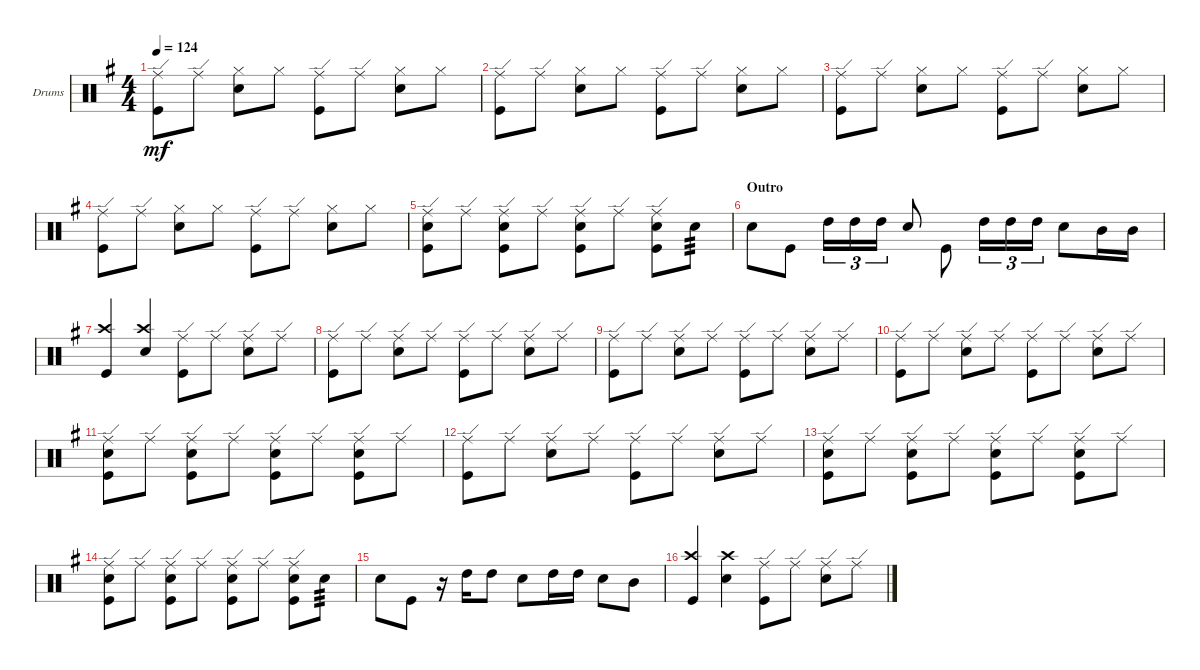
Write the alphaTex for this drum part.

\defaultSystemsLayout 4
\bracketExtendMode groupsimilarinstruments
\firstSystemTrackNameOrientation horizontal
\otherSystemsTrackNameOrientation horizontal
\track ("PETER CRISS" "Drums") {instrument percussion}
\staff {score}
\articulation defaults
\ts (4 4)
\tempo 124
\clef neutral
\scale
0.333333
\ks g
("Ride (edge)" "Kick (hit)").8{dy mf} "Ride (edge)".8 ("Snare (hit) 2" "Hi-Hat (closed)").8 "Hi-Hat (closed)".8 ("Ride (edge)" "Kick (hit)").8 "Ride (edge)".8 ("Snare (hit) 2" "Hi-Hat (closed)").8 "Hi-Hat (closed)".8 |
\scale
0.333333 ("Ride (edge)" "Kick (hit)").8 "Ride (edge)".8 ("Snare (hit) 2" "Hi-Hat (closed)").8 "Hi-Hat (closed)".8 ("Ride (edge)" "Kick (hit)").8 "Ride (edge)".8 ("Snare (hit) 2" "Hi-Hat (closed)").8 "Hi-Hat (closed)".8 |
\scale
0.333333 ("Ride (edge)" "Kick (hit)").8 "Ride (edge)".8 ("Snare (hit) 2" "Hi-Hat (closed)").8 "Hi-Hat (closed)".8 ("Ride (edge)" "Kick (hit)").8 "Ride (edge)".8 ("Snare (hit) 2" "Hi-Hat (closed)").8 "Hi-Hat (closed)".8 |
\scale
0.333333 ("Ride (edge)" "Kick (hit)").8 "Ride (edge)".8 ("Snare (hit) 2" "Hi-Hat (closed)").8 "Hi-Hat (closed)".8 ("Ride (edge)" "Kick (hit)").8 "Ride (edge)".8 ("Snare (hit) 2" "Hi-Hat (closed)").8 "Hi-Hat (closed)".8 |
\scale
0.333333 ("Ride (edge)" "Kick (hit)" "Snare (hit) 2").8 "Ride (edge)".8 ("Ride (edge)" "Kick (hit)" "Snare (hit) 2").8 "Ride (edge)".8 ("Ride (edge)" "Kick (hit)" "Snare (hit) 2").8 "Ride (edge)".8 ("Snare (hit) 2" "Kick (hit)" "Ride (edge)").8 "Snare (hit) 2".8{tp 3} |
\section ("" "Outro")
\scale
0.333333 "Snare (hit) 2".8{beam invert} "Kick (hit)".8 "High Tom (hit)".16{tu (3 2)} "High Tom (hit)".16{tu (3 2)} "High Tom (hit)".16{tu (3 2)} "Snare (hit) 2".8 "Kick (hit)".8{beam invert} "High Tom (hit)".16{tu (3 2)} "High Tom (hit)".16{tu (3 2)} "High Tom (hit)".16{tu (3 2)} "Snare (hit) 2".8 "Mid Tom (hit)".16 "Mid Tom (hit)".16 |
\scale
0.333333 ("Crash high (hit)" "Kick (hit)").4 ("Snare (hit) 2" "Crash high (hit)").4{beam invert} ("Kick (hit)" "Ride (edge)").8 "Ride (edge)".8 ("Ride (edge)" "Snare (hit) 2").8 "Ride (edge)".8 |
\scale
0.333333 ("Kick (hit)" "Ride (edge)").8 "Ride (edge)".8 ("Ride (edge)" "Snare (hit) 2").8 "Ride (edge)".8 ("Kick (hit)" "Ride (edge)").8 "Ride (edge)".8 ("Ride (edge)" "Snare (hit) 2").8 "Ride (edge)".8 |
\scale
0.333333 ("Kick (hit)" "Ride (edge)").8 "Ride (edge)".8 ("Ride (edge)" "Snare (hit) 2").8 "Ride (edge)".8 ("Kick (hit)" "Ride (edge)").8 "Ride (edge)".8 ("Ride (edge)" "Snare (hit) 2").8 "Ride (edge)".8 |
\scale
0.333333 ("Kick (hit)" "Ride (edge)").8 "Ride (edge)".8 ("Ride (edge)" "Snare (hit) 2").8 "Ride (edge)".8 ("Kick (hit)" "Ride (edge)").8 "Ride (edge)".8 ("Ride (edge)" "Snare (hit) 2").8 "Ride (edge)".8 |
\scale
0.333333 ("Ride (edge)" "Kick (hit)" "Snare (hit) 2").8 "Ride (edge)".8 ("Ride (edge)" "Kick (hit)" "Snare (hit) 2").8 "Ride (edge)".8 ("Ride (edge)" "Kick (hit)" "Snare (hit) 2").8 "Ride (edge)".8 ("Snare (hit) 2" "Kick (hit)" "Ride (edge)").8 "Ride (edge)".8 |
\scale
0.333333 ("Kick (hit)" "Ride (edge)").8 "Ride (edge)".8 ("Ride (edge)" "Snare (hit) 2").8 "Ride (edge)".8 ("Kick (hit)" "Ride (edge)").8 "Ride (edge)".8 ("Ride (edge)" "Snare (hit) 2").8 "Ride (edge)".8 |
\scale
0.333333 ("Ride (edge)" "Kick (hit)" "Snare (hit) 2").8 "Ride (edge)".8 ("Ride (edge)" "Kick (hit)" "Snare (hit) 2").8 "Ride (edge)".8 ("Ride (edge)" "Kick (hit)" "Snare (hit) 2").8 "Ride (edge)".8 ("Snare (hit) 2" "Kick (hit)" "Ride (edge)").8 "Ride (edge)".8 |
\scale
0.333333 ("Ride (edge)" "Kick (hit)" "Snare (hit) 2").8 "Ride (edge)".8 ("Ride (edge)" "Kick (hit)" "Snare (hit) 2").8 "Ride (edge)".8 ("Ride (edge)" "Kick (hit)" "Snare (hit) 2").8 "Ride (edge)".8 ("Snare (hit) 2" "Kick (hit)" "Ride (edge)").8 "Snare (hit) 2".8{tp 3} |
\scale
0.333333 "Snare (hit) 2".8{beam invert} "Kick (hit)".8 r.16 "High Tom (hit)".16 "High Tom (hit)".8 "Snare (hit) 2".8 "High Tom (hit)".16 "High Tom (hit)".16 "Snare (hit) 2".8 "Mid Tom (hit)".8 |
\scale
0.333333 ("Crash high (hit)" "Kick (hit)").4{beam invert} ("Snare (hit) 2" "Crash high (hit)").4 ("Kick (hit)" "Ride (edge)").8 "Ride (edge)".8 ("Ride (edge)" "Snare (hit) 2").8 "Ride (edge)".8
